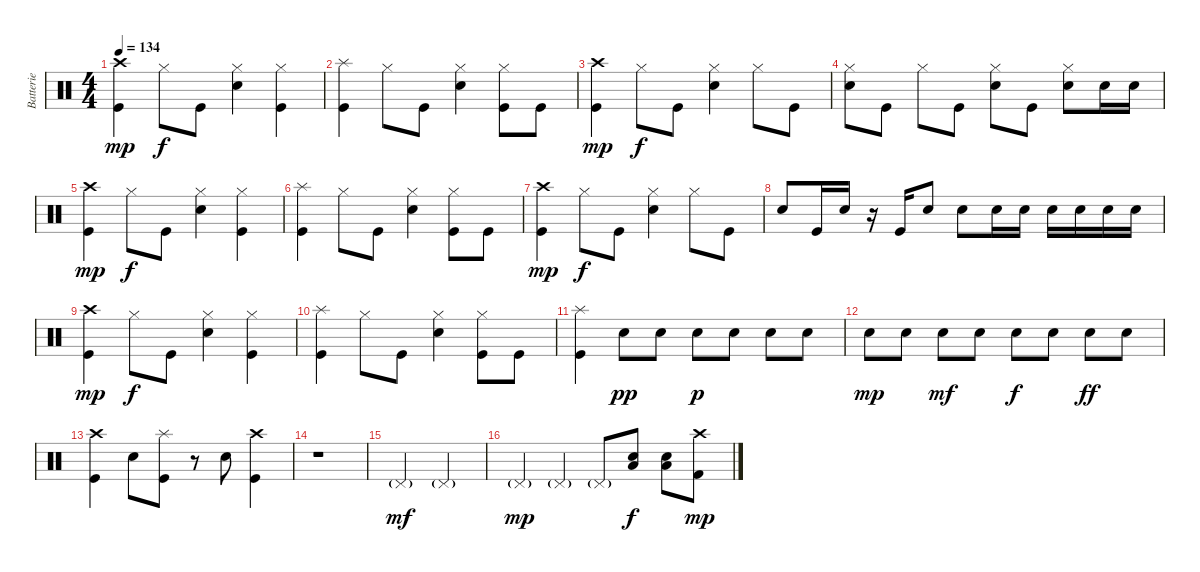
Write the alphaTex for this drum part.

\track ("Batterie" "Batterie") {instrument percussion}
\staff {score}
\articulation defaults
\ts (4 4)
\tempo 134
\clef neutral
\ks c
("Crash high (hit)" "Kick (hit)").4{dy mp} "Hi-Hat (closed)".8{dy f} "Kick (hit)".8 ("Hi-Hat (closed)" "Snare (hit) 2").4 ("Hi-Hat (closed)" "Kick (hit)").4 |
("Splash (hit)" "Kick (hit)").4 "Hi-Hat (closed)".8 "Kick (hit)".8 ("Hi-Hat (closed)" "Snare (hit) 2").4 ("Hi-Hat (closed)" "Kick (hit)").8 "Kick (hit)".8 |
("Crash high (hit)" "Kick (hit)").4{dy mp} "Hi-Hat (closed)".8{dy f} "Kick (hit)".8 ("Hi-Hat (closed)" "Snare (hit) 2").4 "Hi-Hat (closed)".8 "Kick (hit)".8 |
("Hi-Hat (closed)" "Snare (hit) 2").8 "Kick (hit)".8 "Hi-Hat (closed)".8 "Kick (hit)".8 ("Hi-Hat (closed)" "Snare (hit) 2").8 "Kick (hit)".8 ("Hi-Hat (closed)" "Snare (hit) 2").8 "Snare (hit) 2".16 "Snare (hit) 2".16 |
("Crash high (hit)" "Kick (hit)").4{dy mp} "Hi-Hat (closed)".8{dy f} "Kick (hit)".8 ("Hi-Hat (closed)" "Snare (hit) 2").4 ("Hi-Hat (closed)" "Kick (hit)").4 |
("Splash (hit)" "Kick (hit)").4 "Hi-Hat (closed)".8 "Kick (hit)".8 ("Hi-Hat (closed)" "Snare (hit) 2").4 ("Hi-Hat (closed)" "Kick (hit)").8 "Kick (hit)".8 |
("Crash high (hit)" "Kick (hit)").4{dy mp} "Hi-Hat (closed)".8{dy f} "Kick (hit)".8 ("Hi-Hat (closed)" "Snare (hit) 2").4 "Hi-Hat (closed)".8 "Kick (hit)".8 |
"Snare (hit) 2".8 "Kick (hit)".16 "Snare (hit) 2".16 r.16 "Kick (hit)".16 "Snare (hit) 2".8 "Snare (hit) 2".8 "Snare (hit) 2".16 "Snare (hit) 2".16 "Snare (hit) 2".16 "Snare (hit) 2".16 "Snare (hit) 2".16 "Snare (hit) 2".16 |
("Crash high (hit)" "Kick (hit)").4{dy mp} "Hi-Hat (closed)".8{dy f} "Kick (hit)".8 ("Hi-Hat (closed)" "Snare (hit) 2").4 ("Hi-Hat (closed)" "Kick (hit)").4 |
("Splash (hit)" "Kick (hit)").4 "Hi-Hat (closed)".8 "Kick (hit)".8 ("Hi-Hat (closed)" "Snare (hit) 2").4 ("Hi-Hat (closed)" "Kick (hit)").8 "Kick (hit)".8 |
("Splash (hit)" "Kick (hit)").4 "Snare (hit) 2".8{dy pp} "Snare (hit) 2".8 "Snare (hit) 2".8{dy p} "Snare (hit) 2".8 "Snare (hit) 2".8 "Snare (hit) 2".8 |
"Snare (hit) 2".8{dy mp} "Snare (hit) 2".8 "Snare (hit) 2".8{dy mf} "Snare (hit) 2".8 "Snare (hit) 2".8{dy f} "Snare (hit) 2".8 "Snare (hit) 2".8{dy ff} "Snare (hit) 2".8 |
("Crash high (hit)" "Kick (hit)").4 "Snare (hit) 2".8 ("Splash (hit)" "Kick (hit)").8 r.8 "Snare (hit) 2".8 ("Crash high (hit)" "Kick (hit)").4 |
r.1 |
"Pedal Hi-Hat (hit)"{g}.2{dy mf} "Pedal Hi-Hat (hit)"{g}.2 |
"Pedal Hi-Hat (hit)"{g}.4{dy mp} "Pedal Hi-Hat (hit)"{g}.4 "Pedal Hi-Hat (hit)"{g}.8 ("Snare (hit) 2" "Low Floor Tom (hit)").8{dy f} ("Snare (hit) 2" "Low Floor Tom (hit)").8 ("Crash high (hit)" "Kick (hit) 2").8{dy mp}
